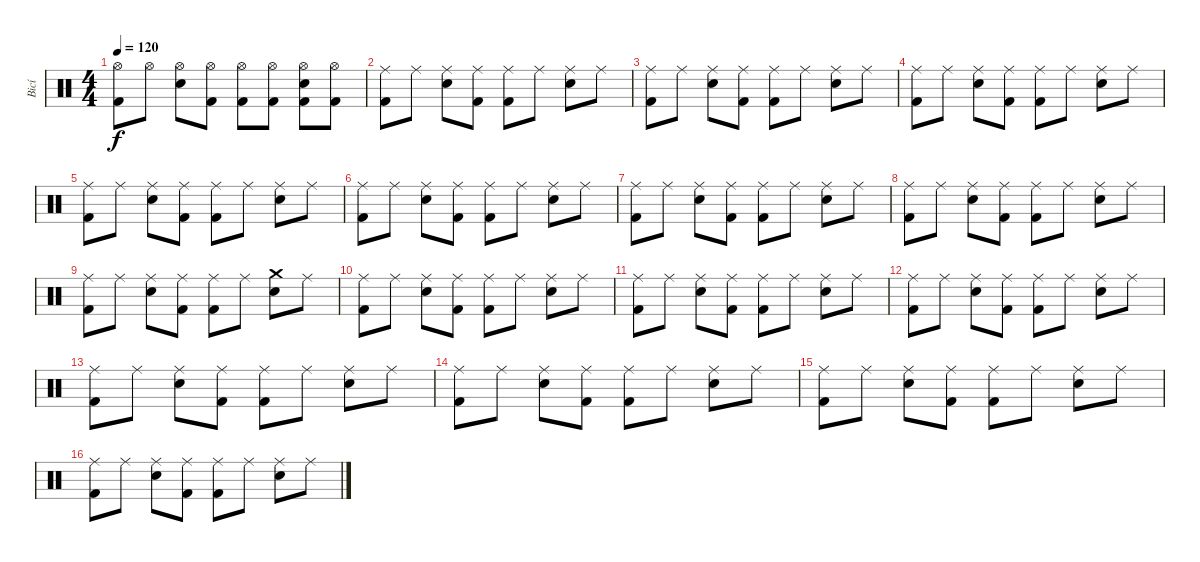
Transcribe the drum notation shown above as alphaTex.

\track ("Bicí" "Bicí") {instrument percussion}
\staff {score}
\articulation defaults
\ts (4 4)
\tempo 120
\clef neutral
\ks c
("Hi-Hat (open)" "Kick (hit) 2").8{dy f} "Hi-Hat (open)".8 ("Hi-Hat (open)" "Electric Snare (hit)").8 ("Hi-Hat (open)" "Kick (hit) 2").8 ("Hi-Hat (open)" "Kick (hit) 2").8 ("Hi-Hat (open)" "Kick (hit) 2").8 ("Hi-Hat (open)" "Electric Snare (hit)" "Kick (hit) 2").8 ("Hi-Hat (open)" "Kick (hit) 2").8 |
("Ride (middle)" "Kick (hit) 2").8 "Ride (middle)".8 ("Ride (middle)" "Electric Snare (hit)").8 ("Ride (middle)" "Kick (hit) 2").8 ("Ride (middle)" "Kick (hit) 2").8 "Ride (middle)".8 ("Ride (middle)" "Electric Snare (hit)").8 "Ride (middle)".8 |
("Ride (middle)" "Kick (hit) 2").8 "Ride (middle)".8 ("Ride (middle)" "Electric Snare (hit)").8 ("Ride (middle)" "Kick (hit) 2").8 ("Ride (middle)" "Kick (hit) 2").8 "Ride (middle)".8 ("Ride (middle)" "Electric Snare (hit)").8 "Ride (middle)".8 |
("Ride (middle)" "Kick (hit) 2").8 "Ride (middle)".8 ("Ride (middle)" "Electric Snare (hit)").8 ("Ride (middle)" "Kick (hit) 2").8 ("Ride (middle)" "Kick (hit) 2").8 "Ride (middle)".8 ("Ride (middle)" "Electric Snare (hit)").8 "Ride (middle)".8 |
("Ride (middle)" "Kick (hit) 2").8 "Ride (middle)".8 ("Ride (middle)" "Electric Snare (hit)").8 ("Ride (middle)" "Kick (hit) 2").8 ("Ride (middle)" "Kick (hit) 2").8 "Ride (middle)".8 ("Ride (middle)" "Electric Snare (hit)").8 "Ride (middle)".8 |
("Ride (middle)" "Kick (hit) 2").8 "Ride (middle)".8 ("Ride (middle)" "Electric Snare (hit)").8 ("Ride (middle)" "Kick (hit) 2").8 ("Ride (middle)" "Kick (hit) 2").8 "Ride (middle)".8 ("Ride (middle)" "Electric Snare (hit)").8 "Ride (middle)".8 |
("Ride (middle)" "Kick (hit) 2").8 "Ride (middle)".8 ("Ride (middle)" "Electric Snare (hit)").8 ("Ride (middle)" "Kick (hit) 2").8 ("Ride (middle)" "Kick (hit) 2").8 "Ride (middle)".8 ("Ride (middle)" "Electric Snare (hit)").8 "Ride (middle)".8 |
("Ride (middle)" "Kick (hit) 2").8 "Ride (middle)".8 ("Ride (middle)" "Electric Snare (hit)").8 ("Ride (middle)" "Kick (hit) 2").8 ("Ride (middle)" "Kick (hit) 2").8 "Ride (middle)".8 ("Ride (middle)" "Electric Snare (hit)").8 "Ride (middle)".8 |
("Ride (middle)" "Kick (hit) 2").8 "Ride (middle)".8 ("Ride (middle)" "Electric Snare (hit)").8 ("Ride (middle)" "Kick (hit) 2").8 ("Ride (middle)" "Kick (hit) 2").8 "Ride (middle)".8 ("Crash medium (hit)" "Electric Snare (hit)").8 "Ride (middle)".8 |
("Ride (middle)" "Kick (hit) 2").8 "Ride (middle)".8 ("Ride (middle)" "Electric Snare (hit)").8 ("Ride (middle)" "Kick (hit) 2").8 ("Ride (middle)" "Kick (hit) 2").8 "Ride (middle)".8 ("Ride (middle)" "Electric Snare (hit)").8 "Ride (middle)".8 |
("Ride (middle)" "Kick (hit) 2").8 "Ride (middle)".8 ("Ride (middle)" "Electric Snare (hit)").8 ("Ride (middle)" "Kick (hit) 2").8 ("Ride (middle)" "Kick (hit) 2").8 "Ride (middle)".8 ("Ride (middle)" "Electric Snare (hit)").8 "Ride (middle)".8 |
("Ride (middle)" "Kick (hit) 2").8 "Ride (middle)".8 ("Ride (middle)" "Electric Snare (hit)").8 ("Ride (middle)" "Kick (hit) 2").8 ("Ride (middle)" "Kick (hit) 2").8 "Ride (middle)".8 ("Ride (middle)" "Electric Snare (hit)").8 "Ride (middle)".8 |
("Ride (middle)" "Kick (hit) 2").8 "Ride (middle)".8 ("Ride (middle)" "Electric Snare (hit)").8 ("Ride (middle)" "Kick (hit) 2").8 ("Ride (middle)" "Kick (hit) 2").8 "Ride (middle)".8 ("Ride (middle)" "Electric Snare (hit)").8 "Ride (middle)".8 |
("Ride (middle)" "Kick (hit) 2").8 "Ride (middle)".8 ("Ride (middle)" "Electric Snare (hit)").8 ("Ride (middle)" "Kick (hit) 2").8 ("Ride (middle)" "Kick (hit) 2").8 "Ride (middle)".8 ("Ride (middle)" "Electric Snare (hit)").8 "Ride (middle)".8 |
("Ride (middle)" "Kick (hit) 2").8 "Ride (middle)".8 ("Ride (middle)" "Electric Snare (hit)").8 ("Ride (middle)" "Kick (hit) 2").8 ("Ride (middle)" "Kick (hit) 2").8 "Ride (middle)".8 ("Ride (middle)" "Electric Snare (hit)").8 "Ride (middle)".8 |
("Ride (middle)" "Kick (hit) 2").8 "Ride (middle)".8 ("Ride (middle)" "Electric Snare (hit)").8 ("Ride (middle)" "Kick (hit) 2").8 ("Ride (middle)" "Kick (hit) 2").8 "Ride (middle)".8 ("Ride (middle)" "Electric Snare (hit)").8 "Ride (middle)".8
